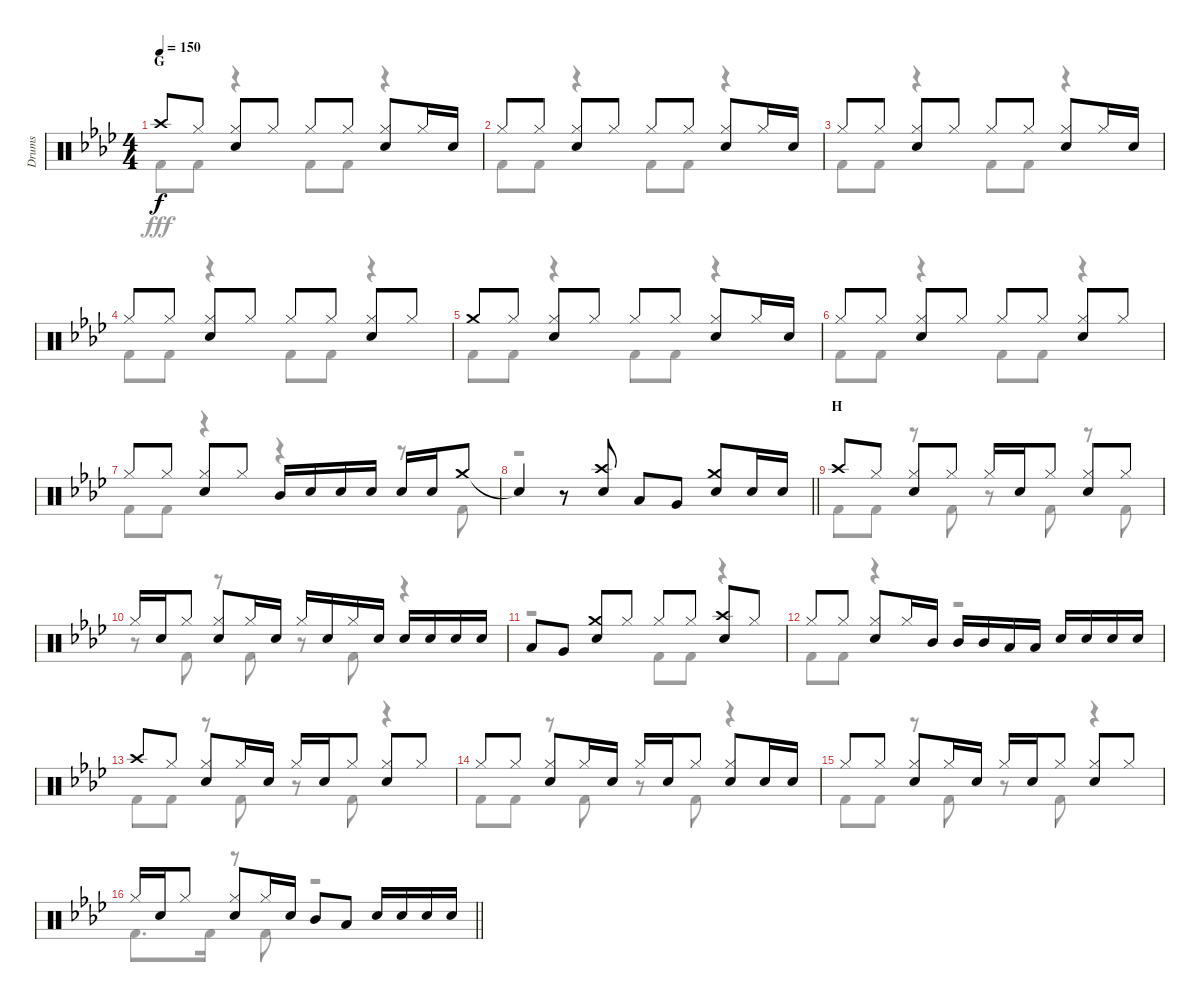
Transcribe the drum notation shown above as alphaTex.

\track ("Drums" "Drums") {instrument percussion}
\staff {score}
\articulation defaults
\voice
\ts (4 4)
\section ("" "G")
\tempo 150
\clef neutral
\ks ab "Crash high (hit)".8{dy f} "Hi-Hat (closed)".8
("Hi-Hat (closed)" "Snare (hit) 2").8 "Hi-Hat (closed)".8 "Hi-Hat (closed)".8 "Hi-Hat (closed)".8 ("Hi-Hat (closed)" "Snare (hit) 2").8 "Hi-Hat (closed)".16 "Snare (hit) 2".16 |
"Hi-Hat (closed)".8 "Hi-Hat (closed)".8 ("Hi-Hat (closed)" "Snare (hit) 2").8 "Hi-Hat (closed)".8 "Hi-Hat (closed)".8 "Hi-Hat (closed)".8 ("Hi-Hat (closed)" "Snare (hit) 2").8 "Hi-Hat (closed)".16 "Snare (hit) 2".16 |
"Hi-Hat (closed)".8 "Hi-Hat (closed)".8 ("Hi-Hat (closed)" "Snare (hit) 2").8 "Hi-Hat (closed)".8 "Hi-Hat (closed)".8 "Hi-Hat (closed)".8 ("Hi-Hat (closed)" "Snare (hit) 2").8 "Hi-Hat (closed)".16 "Snare (hit) 2".16 |
"Hi-Hat (closed)".8 "Hi-Hat (closed)".8 ("Hi-Hat (closed)" "Snare (hit) 2").8 "Hi-Hat (closed)".8 "Hi-Hat (closed)".8 "Hi-Hat (closed)".8 ("Hi-Hat (closed)" "Snare (hit) 2").8 "Hi-Hat (closed)".8 |
"Crash medium (hit)".8 "Hi-Hat (closed)".8 ("Hi-Hat (closed)" "Snare (hit) 2").8 "Hi-Hat (closed)".8 "Hi-Hat (closed)".8 "Hi-Hat (closed)".8 ("Hi-Hat (closed)" "Snare (hit) 2").8 "Hi-Hat (closed)".16 "Snare (hit) 2".16 |
"Hi-Hat (closed)".8 "Hi-Hat (closed)".8 ("Hi-Hat (closed)" "Snare (hit) 2").8 "Hi-Hat (closed)".8 "Hi-Hat (closed)".8 "Hi-Hat (closed)".8 ("Hi-Hat (closed)" "Snare (hit) 2").8 "Hi-Hat (closed)".8 |
"Hi-Hat (closed)".8 "Hi-Hat (closed)".8 ("Hi-Hat (closed)" "Snare (hit) 2").8 "Hi-Hat (closed)".8 "Mid Tom (hit)".16 "Snare (hit) 2".16 "Snare (hit) 2".16 "Snare (hit) 2".16 "Snare (hit) 2".16 "Snare (hit) 2".16 "Crash medium (hit)".8 |
\barLineRight lightlight "Snare (hit)"{t}.4
r.8 ("Crash high (hit)" "Snare (hit) 2").8 "Low Tom (hit)".8 "Very Low Tom (hit)".8 ("Crash medium (hit)" "Snare (hit) 2").8 "Snare (hit) 2".16 "Snare (hit) 2".16 |
\section ("" "H")
"Crash high (hit)".8 "Hi-Hat (closed)".8 ("Hi-Hat (closed)" "Snare (hit) 2").8 "Hi-Hat (closed)".8 "Hi-Hat (closed)".16 "Snare (hit) 2".16 "Hi-Hat (closed)".8 ("Hi-Hat (closed)" "Snare (hit) 2").8 "Hi-Hat (closed)".8 |
"Hi-Hat (closed)".16 "Snare (hit) 2".16 "Hi-Hat (closed)".8 ("Hi-Hat (closed)" "Snare (hit) 2").8 "Hi-Hat (closed)".16 "Snare (hit) 2".16 "Hi-Hat (closed)".16 "Snare (hit) 2".16 "Hi-Hat (closed)".16 "Snare (hit) 2".16 "Snare (hit) 2".16 "Snare (hit) 2".16 "Snare (hit) 2".16 "Snare (hit) 2".16 |
"Low Tom (hit)".8 "Very Low Tom (hit)".8 ("Crash medium (hit)" "Snare (hit) 2").8 "Hi-Hat (closed)".8 "Hi-Hat (closed)".8 "Hi-Hat (closed)".8 ("Crash high (hit)" "Snare (hit) 2").8 "Hi-Hat (closed)".8 |
"Hi-Hat (closed)".8 "Hi-Hat (closed)".8 ("Hi-Hat (closed)" "Snare (hit) 2").8 "Hi-Hat (closed)".16 "Mid Tom (hit)".16 "Mid Tom (hit)".16 "Mid Tom (hit)".16 "Low Tom (hit)".16 "Low Tom (hit)".16 "Snare (hit) 2".16 "Snare (hit) 2".16 "Snare (hit) 2".16 "Snare (hit) 2".16 |
"Crash high (hit)".8 "Hi-Hat (closed)".8 ("Hi-Hat (closed)" "Snare (hit) 2").8 "Hi-Hat (closed)".16 "Snare (hit) 2".16 "Hi-Hat (closed)".16 "Snare (hit) 2".16 "Hi-Hat (closed)".8 ("Hi-Hat (closed)" "Snare (hit) 2").8 "Hi-Hat (closed)".8 |
"Hi-Hat (closed)".8 "Hi-Hat (closed)".8 ("Hi-Hat (closed)" "Snare (hit) 2").8 "Hi-Hat (closed)".16 "Snare (hit) 2".16 "Hi-Hat (closed)".16 "Snare (hit) 2".16 "Hi-Hat (closed)".8 ("Hi-Hat (closed)" "Snare (hit) 2").8 "Snare (hit) 2".16 "Snare (hit) 2".16 |
"Hi-Hat (closed)".8 "Hi-Hat (closed)".8 ("Hi-Hat (closed)" "Snare (hit) 2").8 "Hi-Hat (closed)".16 "Snare (hit) 2".16 "Hi-Hat (closed)".16 "Snare (hit) 2".16 "Hi-Hat (closed)".8 ("Hi-Hat (closed)" "Snare (hit) 2").8 "Hi-Hat (closed)".8 |
\barLineRight lightlight "Hi-Hat (closed)".16 "Snare (hit) 2".16 "Hi-Hat (closed)".8
("Hi-Hat (closed)" "Snare (hit) 2").8 "Hi-Hat (closed)".16 "Snare (hit) 2".16 "Mid Tom (hit)".8 "Low Tom (hit)".8 "Snare (hit) 2".16 "Snare (hit) 2".16 "Snare (hit) 2".16 "Snare (hit) 2".16
\voice
\clef neutral
\ottava regular
\simile none
\ks ab "Kick (hit) 2".8{dy fff} "Kick (hit) 2".8
r.4 "Kick (hit) 2".8 "Kick (hit) 2".8 r.4 |
"Kick (hit) 2".8 "Kick (hit) 2".8 r.4 "Kick (hit) 2".8 "Kick (hit) 2".8 r.4 |
"Kick (hit) 2".8 "Kick (hit) 2".8 r.4 "Kick (hit) 2".8 "Kick (hit) 2".8 r.4 |
"Kick (hit) 2".8 "Kick (hit) 2".8 r.4 "Kick (hit) 2".8 "Kick (hit) 2".8 r.4 |
"Kick (hit) 2".8 "Kick (hit) 2".8 r.4 "Kick (hit) 2".8 "Kick (hit) 2".8 r.4 |
"Kick (hit) 2".8 "Kick (hit) 2".8 r.4 "Kick (hit) 2".8 "Kick (hit) 2".8 r.4 |
"Kick (hit) 2".8 "Kick (hit) 2".8 r.4 r.4 r.8 "Kick (hit) 2".8 |
\barLineRight lightlight
r.1 |
"Kick (hit) 2".8 "Kick (hit) 2".8 r.8 "Kick (hit) 2".8 r.8 "Kick (hit) 2".8 r.8 "Kick (hit) 2".8 |
r.8 "Kick (hit) 2".8 r.8 "Kick (hit) 2".8 r.8 "Kick (hit) 2".8 r.4 |
r.2 "Kick (hit) 2".8 "Kick (hit) 2".8 r.4 |
"Kick (hit) 2".8 "Kick (hit) 2".8 r.4 r.2 |
"Kick (hit) 2".8 "Kick (hit) 2".8 r.8 "Kick (hit) 2".8 r.8 "Kick (hit) 2".8 r.4 |
"Kick (hit) 2".8 "Kick (hit) 2".8 r.8 "Kick (hit) 2".8 r.8 "Kick (hit) 2".8 r.4 |
"Kick (hit) 2".8 "Kick (hit) 2".8 r.8 "Kick (hit) 2".8 r.8 "Kick (hit) 2".8 r.4 |
\barLineRight lightlight "Kick (hit) 2".8{d} "Kick (hit) 2".16
r.8 "Kick (hit) 2".8 r.2
